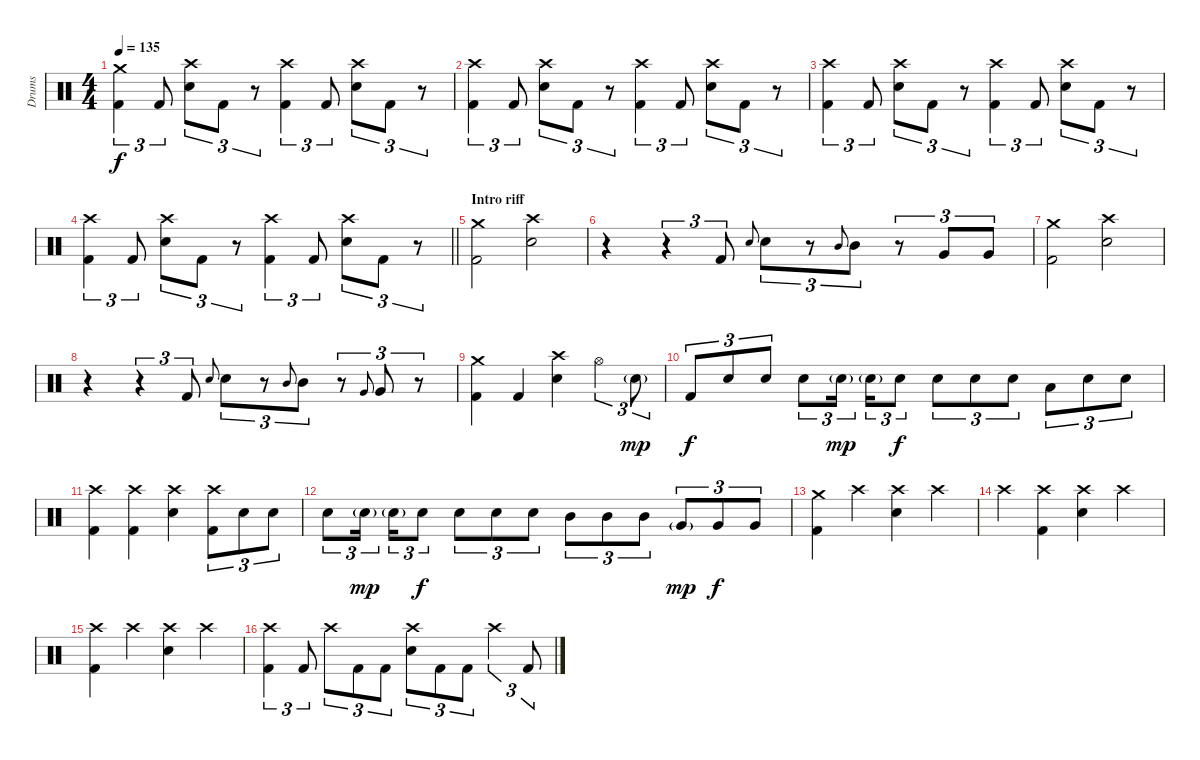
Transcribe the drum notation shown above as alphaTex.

\track ("Drums" "Drums") {instrument percussion}
\staff {score}
\articulation defaults
\ts (4 4)
\tempo 135
\clef neutral
\ks c
("Crash medium (hit)" "Kick (hit) 2").4{tu (3 2) dy f} "Kick (hit) 2".8{tu (3 2)} ("Crash high (hit)" "Electric Snare (hit)").8{tu (3 2)} "Kick (hit) 2".8{tu (3 2)} r.8{tu (3 2)} ("Crash high (hit)" "Kick (hit) 2").4{tu (3 2)} "Kick (hit) 2".8{tu (3 2)} ("Crash high (hit)" "Electric Snare (hit)").8{tu (3 2)} "Kick (hit) 2".8{tu (3 2)} r.8{tu (3 2)} |
("Crash high (hit)" "Kick (hit) 2").4{tu (3 2)} "Kick (hit) 2".8{tu (3 2)} ("Crash high (hit)" "Electric Snare (hit)").8{tu (3 2)} "Kick (hit) 2".8{tu (3 2)} r.8{tu (3 2)} ("Crash high (hit)" "Kick (hit) 2").4{tu (3 2)} "Kick (hit) 2".8{tu (3 2)} ("Crash high (hit)" "Electric Snare (hit)").8{tu (3 2)} "Kick (hit) 2".8{tu (3 2)} r.8{tu (3 2)} |
("Crash high (hit)" "Kick (hit) 2").4{tu (3 2)} "Kick (hit) 2".8{tu (3 2)} ("Crash high (hit)" "Electric Snare (hit)").8{tu (3 2)} "Kick (hit) 2".8{tu (3 2)} r.8{tu (3 2)} ("Crash high (hit)" "Kick (hit) 2").4{tu (3 2)} "Kick (hit) 2".8{tu (3 2)} ("Crash high (hit)" "Electric Snare (hit)").8{tu (3 2)} "Kick (hit) 2".8{tu (3 2)} r.8{tu (3 2)} |
\barLineRight lightlight
("Crash high (hit)" "Kick (hit) 2").4{tu (3 2)} "Kick (hit) 2".8{tu (3 2)} ("Crash high (hit)" "Electric Snare (hit)").8{tu (3 2)} "Kick (hit) 2".8{tu (3 2)} r.8{tu (3 2)} ("Crash high (hit)" "Kick (hit) 2").4{tu (3 2)} "Kick (hit) 2".8{tu (3 2)} ("Crash high (hit)" "Electric Snare (hit)").8{tu (3 2)} "Kick (hit) 2".8{tu (3 2)} r.8{tu (3 2)} |
\section ("" "Intro riff")
("Crash medium (hit)" "Kick (hit) 2").2 ("Crash high (hit)" "Electric Snare (hit)").2 |
r.4 r.4{tu (3 2)} "Kick (hit) 2".8{tu (3 2)} "Electric Snare (hit)".8{gr onbeat} "Electric Snare (hit)".8{tu (3 2)} r.8{tu (3 2)} "Mid Tom (hit)".8{gr onbeat} "Mid Tom (hit)".8{tu (3 2)} r.8{tu (3 2)} "Very Low Tom (hit)".8{tu (3 2)} "Very Low Tom (hit)".8{tu (3 2)} |
("Crash medium (hit)" "Kick (hit) 2").2 ("Crash high (hit)" "Electric Snare (hit)").2 |
r.4 r.4{tu (3 2)} "Kick (hit) 2".8{tu (3 2)} "Electric Snare (hit)".8{gr onbeat} "Electric Snare (hit)".8{tu (3 2)} r.8{tu (3 2)} "Mid Tom (hit)".8{gr onbeat} "Mid Tom (hit)".8{tu (3 2)} r.8{tu (3 2)} "Very Low Tom (hit)".8{gr onbeat} "Very Low Tom (hit)".8{tu (3 2)} r.8{tu (3 2)} |
("Crash medium (hit)" "Kick (hit) 2").4 "Kick (hit) 2".4 ("Crash high (hit)" "Electric Snare (hit)").4 "Hi-Hat (open)".4{tu (3 2)} "Electric Snare (hit)"{g}.8{tu (3 2) dy mp} |
"Kick (hit) 2".8{tu (3 2) dy f} "Electric Snare (hit)".8{tu (3 2)} "Electric Snare (hit)".8{tu (3 2)} "Electric Snare (hit)".8{tu (3 2)} "Electric Snare (hit)"{g}.16{tu (3 2) dy mp beam splitsecondary} "Electric Snare (hit)"{g}.16{tu (3 2)} "Electric Snare (hit)".8{tu (3 2) dy f} "Electric Snare (hit)".8{tu (3 2)} "Electric Snare (hit)".8{tu (3 2)} "Electric Snare (hit)".8{tu (3 2)} "Low Tom (hit)".8{tu (3 2)} "Electric Snare (hit)".8{tu (3 2)} "Electric Snare (hit)".8{tu (3 2)} |
("Crash high (hit)" "Kick (hit) 2").4 ("Crash high (hit)" "Kick (hit) 2").4 ("Electric Snare (hit)" "Crash high (hit)").4 ("Kick (hit) 2" "Crash high (hit)").8{tu (3 2)} "Electric Snare (hit)".8{tu (3 2)} "Electric Snare (hit)".8{tu (3 2)} |
"Electric Snare (hit)".8{tu (3 2)} "Electric Snare (hit)"{g}.16{tu (3 2) dy mp beam splitsecondary} "Electric Snare (hit)"{g}.16{tu (3 2)} "Electric Snare (hit)".8{tu (3 2) dy f} "Electric Snare (hit)".8{tu (3 2)} "Electric Snare (hit)".8{tu (3 2)} "Electric Snare (hit)".8{tu (3 2)} "Mid Tom (hit)".8{tu (3 2)} "Mid Tom (hit)".8{tu (3 2)} "Mid Tom (hit)".8{tu (3 2)} "Very Low Tom (hit)"{g}.8{tu (3 2) dy mp} "Very Low Tom (hit)".8{tu (3 2) dy f} "Very Low Tom (hit)".8{tu (3 2)} |
("Crash medium (hit)" "Kick (hit) 2").4 "Crash high (hit)".4 ("Crash high (hit)" "Electric Snare (hit)").4 "Crash high (hit)".4 |
"Crash high (hit)".4 ("Crash high (hit)" "Kick (hit) 2").4 ("Electric Snare (hit)" "Crash high (hit)").4 "Crash high (hit)".4 |
("Crash high (hit)" "Kick (hit) 2").4 "Crash high (hit)".4 ("Crash high (hit)" "Electric Snare (hit)").4 "Crash high (hit)".4 |
("Crash high (hit)" "Kick (hit) 2").4{tu (3 2)} "Kick (hit) 2".8{tu (3 2)} "Crash high (hit)".8{tu (3 2)} "Kick (hit) 2".8{tu (3 2)} "Kick (hit) 2".8{tu (3 2)} ("Electric Snare (hit)" "Crash high (hit)").8{tu (3 2)} "Kick (hit) 2".8{tu (3 2)} "Kick (hit) 2".8{tu (3 2)} "Crash high (hit)".4{tu (3 2)} "Kick (hit) 2".8{tu (3 2)}
